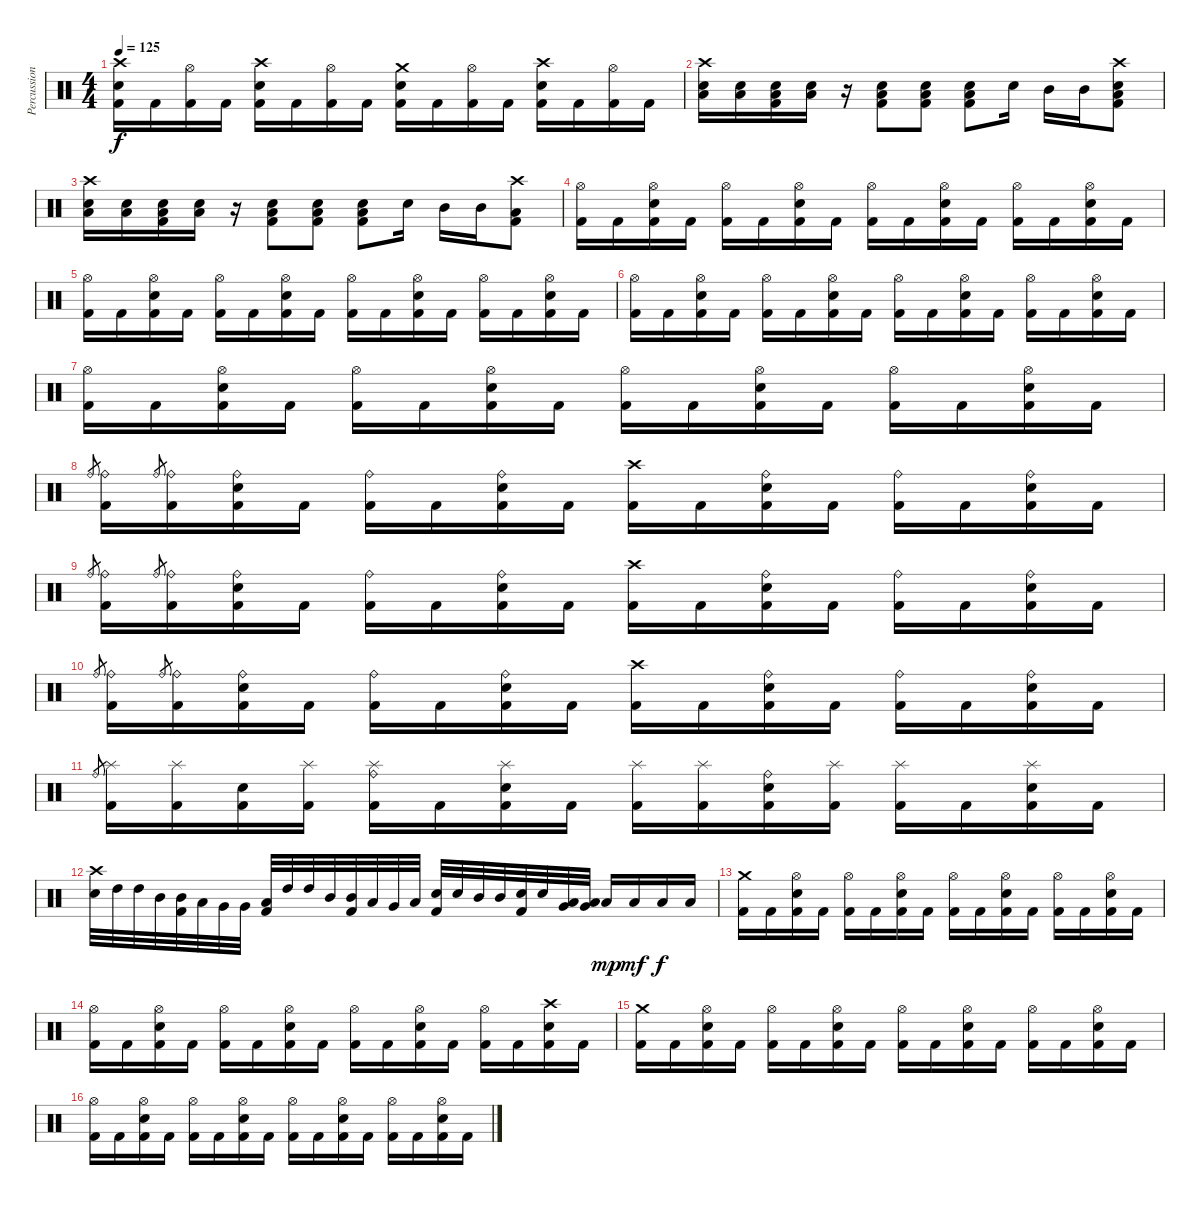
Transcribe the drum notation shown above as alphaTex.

\track ("Percussion" "Percussion") {instrument percussion}
\staff {score}
\articulation defaults
\ts (4 4)
\tempo 125
\clef neutral
\ks c
("Crash high (hit)" "Snare (hit) 2" "Kick (hit) 2").16{dy f} "Kick (hit) 2".16 ("Hi-Hat (open)" "Kick (hit) 2").16 "Kick (hit) 2".16 ("Crash high (hit)" "Snare (hit) 2" "Kick (hit) 2").16 "Kick (hit) 2".16 ("Hi-Hat (open)" "Kick (hit) 2").16 "Kick (hit) 2".16 ("Crash medium (hit)" "Snare (hit) 2" "Kick (hit) 2").16 "Kick (hit) 2".16 ("Hi-Hat (open)" "Kick (hit) 2").16 "Kick (hit) 2".16 ("Crash high (hit)" "Snare (hit) 2" "Kick (hit) 2").16 "Kick (hit) 2".16 ("Hi-Hat (open)" "Kick (hit) 2").16 "Kick (hit) 2".16 |
("Crash high (hit)" "Low Floor Tom (hit)" "Snare (hit) 2").16 ("Low Floor Tom (hit)" "Snare (hit) 2").16 ("Low Floor Tom (hit)" "Snare (hit) 2" "Kick (hit) 2").16 ("Low Floor Tom (hit)" "Snare (hit) 2").16 r.16 ("Low Floor Tom (hit)" "Snare (hit) 2" "Kick (hit) 2").8 ("Low Floor Tom (hit)" "Snare (hit) 2" "Kick (hit) 2").8 ("Low Floor Tom (hit)" "Snare (hit) 2" "Kick (hit) 2").8 "Snare (hit) 2".16 "Mid Tom (hit)".16 "Mid Tom (hit)".16 ("Crash high (hit)" "Low Floor Tom (hit)" "Snare (hit) 2" "Kick (hit) 2").8 |
("Crash high (hit)" "Low Floor Tom (hit)" "Snare (hit) 2").16 ("Low Floor Tom (hit)" "Snare (hit) 2").16 ("Low Floor Tom (hit)" "Snare (hit) 2" "Kick (hit) 2").16 ("Low Floor Tom (hit)" "Snare (hit) 2").16 r.16 ("Low Floor Tom (hit)" "Snare (hit) 2" "Kick (hit) 2").8 ("Low Floor Tom (hit)" "Snare (hit) 2" "Kick (hit) 2").8 ("Low Floor Tom (hit)" "Snare (hit) 2" "Kick (hit) 2").8 "Snare (hit) 2".16 "Mid Tom (hit)".16 "Mid Tom (hit)".16 ("Crash high (hit)" "Low Floor Tom (hit)" "Kick (hit) 2").8 |
("Hi-Hat (open)" "Kick (hit) 2").16 "Kick (hit) 2".16 ("Hi-Hat (open)" "Snare (hit) 2" "Kick (hit) 2").16 "Kick (hit) 2".16 ("Hi-Hat (open)" "Kick (hit) 2").16 "Kick (hit) 2".16 ("Hi-Hat (open)" "Snare (hit) 2" "Kick (hit) 2").16 "Kick (hit) 2".16 ("Hi-Hat (open)" "Kick (hit) 2").16 "Kick (hit) 2".16 ("Hi-Hat (open)" "Snare (hit) 2" "Kick (hit) 2").16 "Kick (hit) 2".16 ("Hi-Hat (open)" "Kick (hit) 2").16 "Kick (hit) 2".16 ("Hi-Hat (open)" "Snare (hit) 2" "Kick (hit) 2").16 "Kick (hit) 2".16 |
("Hi-Hat (open)" "Kick (hit) 2").16 "Kick (hit) 2".16 ("Hi-Hat (open)" "Snare (hit) 2" "Kick (hit) 2").16 "Kick (hit) 2".16 ("Hi-Hat (open)" "Kick (hit) 2").16 "Kick (hit) 2".16 ("Hi-Hat (open)" "Snare (hit) 2" "Kick (hit) 2").16 "Kick (hit) 2".16 ("Hi-Hat (open)" "Kick (hit) 2").16 "Kick (hit) 2".16 ("Hi-Hat (open)" "Snare (hit) 2" "Kick (hit) 2").16 "Kick (hit) 2".16 ("Hi-Hat (open)" "Kick (hit) 2").16 "Kick (hit) 2".16 ("Hi-Hat (open)" "Snare (hit) 2" "Kick (hit) 2").16 "Kick (hit) 2".16 |
("Hi-Hat (open)" "Kick (hit) 2").16 "Kick (hit) 2".16 ("Hi-Hat (open)" "Snare (hit) 2" "Kick (hit) 2").16 "Kick (hit) 2".16 ("Hi-Hat (open)" "Kick (hit) 2").16 "Kick (hit) 2".16 ("Hi-Hat (open)" "Snare (hit) 2" "Kick (hit) 2").16 "Kick (hit) 2".16 ("Hi-Hat (open)" "Kick (hit) 2").16 "Kick (hit) 2".16 ("Hi-Hat (open)" "Snare (hit) 2" "Kick (hit) 2").16 "Kick (hit) 2".16 ("Hi-Hat (open)" "Kick (hit) 2").16 "Kick (hit) 2".16 ("Hi-Hat (open)" "Snare (hit) 2" "Kick (hit) 2").16 "Kick (hit) 2".16 |
("Hi-Hat (open)" "Kick (hit) 2").16 "Kick (hit) 2".16 ("Hi-Hat (open)" "Snare (hit) 2" "Kick (hit) 2").16 "Kick (hit) 2".16 ("Hi-Hat (open)" "Kick (hit) 2").16 "Kick (hit) 2".16 ("Hi-Hat (open)" "Snare (hit) 2" "Kick (hit) 2").16 "Kick (hit) 2".16 ("Hi-Hat (open)" "Kick (hit) 2").16 "Kick (hit) 2".16 ("Hi-Hat (open)" "Snare (hit) 2" "Kick (hit) 2").16 "Kick (hit) 2".16 ("Hi-Hat (open)" "Kick (hit) 2").16 "Kick (hit) 2".16 ("Hi-Hat (open)" "Snare (hit) 2" "Kick (hit) 2").16 "Kick (hit) 2".16 |
"Ride (bell)".8{gr} ("Ride (bell)" "Kick (hit) 2").16 "Ride (bell)".8{gr} ("Ride (bell)" "Kick (hit) 2").16 ("Ride (bell)" "Snare (hit) 2" "Kick (hit) 2").16 "Kick (hit) 2".16 ("Ride (bell)" "Kick (hit) 2").16 "Kick (hit) 2".16 ("Ride (bell)" "Snare (hit) 2" "Kick (hit) 2").16 "Kick (hit) 2".16 ("Crash high (hit)" "Kick (hit) 2").16 "Kick (hit) 2".16 ("Ride (bell)" "Snare (hit) 2" "Kick (hit) 2").16 "Kick (hit) 2".16 ("Ride (bell)" "Kick (hit) 2").16 "Kick (hit) 2".16 ("Ride (bell)" "Snare (hit) 2" "Kick (hit) 2").16 "Kick (hit) 2".16 |
"Ride (bell)".8{gr} ("Ride (bell)" "Kick (hit) 2").16 "Ride (bell)".8{gr} ("Ride (bell)" "Kick (hit) 2").16 ("Ride (bell)" "Snare (hit) 2" "Kick (hit) 2").16 "Kick (hit) 2".16 ("Ride (bell)" "Kick (hit) 2").16 "Kick (hit) 2".16 ("Ride (bell)" "Snare (hit) 2" "Kick (hit) 2").16 "Kick (hit) 2".16 ("Crash high (hit)" "Kick (hit) 2").16 "Kick (hit) 2".16 ("Ride (bell)" "Snare (hit) 2" "Kick (hit) 2").16 "Kick (hit) 2".16 ("Ride (bell)" "Kick (hit) 2").16 "Kick (hit) 2".16 ("Ride (bell)" "Snare (hit) 2" "Kick (hit) 2").16 "Kick (hit) 2".16 |
"Ride (bell)".8{gr} ("Ride (bell)" "Kick (hit) 2").16 "Ride (bell)".8{gr} ("Ride (bell)" "Kick (hit) 2").16 ("Ride (bell)" "Snare (hit) 2" "Kick (hit) 2").16 "Kick (hit) 2".16 ("Ride (bell)" "Kick (hit) 2").16 "Kick (hit) 2".16 ("Ride (bell)" "Snare (hit) 2" "Kick (hit) 2").16 "Kick (hit) 2".16 ("Crash high (hit)" "Kick (hit) 2").16 "Kick (hit) 2".16 ("Ride (bell)" "Snare (hit) 2" "Kick (hit) 2").16 "Kick (hit) 2".16 ("Ride (bell)" "Kick (hit) 2").16 "Kick (hit) 2".16 ("Ride (bell)" "Snare (hit) 2" "Kick (hit) 2").16 "Kick (hit) 2".16 |
"Ride (bell)".8{gr} ("Splash (hit)" "Kick (hit) 2").16 ("Splash (hit)" "Kick (hit) 2").16 ("Snare (hit) 2" "Kick (hit) 2").16 ("Splash (hit)" "Kick (hit) 2").16 ("Ride (bell)" "Splash (hit)" "Kick (hit) 2").16 "Kick (hit) 2".16 ("Splash (hit)" "Snare (hit) 2" "Kick (hit) 2").16 "Kick (hit) 2".16 ("Splash (hit)" "Kick (hit) 2").16 ("Splash (hit)" "Kick (hit) 2").16 ("Ride (bell)" "Snare (hit) 2" "Kick (hit) 2").16 ("Splash (hit)" "Kick (hit) 2").16 ("Splash (hit)" "Kick (hit) 2").16 "Kick (hit) 2".16 ("Splash (hit)" "Snare (hit) 2" "Kick (hit) 2").16 "Kick (hit) 2".16 |
("Crash high (hit)" "Snare (hit) 2").32 "High Tom (hit)".32 "High Tom (hit)".32 "Mid Tom (hit)".32 ("Mid Tom (hit)" "Kick (hit) 2").32 "Low Tom (hit)".32 "Very Low Tom (hit)".32 "Very Low Tom (hit)".32 ("Low Floor Tom (hit)" "Kick (hit) 2").32 "High Tom (hit)".32 "High Tom (hit)".32 "Mid Tom (hit)".32 ("Mid Tom (hit)" "Kick (hit) 2").32 "Low Tom (hit)".32 "Very Low Tom (hit)".32 "Low Floor Tom (hit)".32 ("Snare (hit) 2" "Kick (hit) 2").32 "Snare (hit) 2".32 "Mid Tom (hit)".32 "Mid Tom (hit)".32 ("Snare (hit) 2" "Kick (hit) 2").32 "Snare (hit) 2".32 ("Very Low Tom (hit)" "Low Floor Tom (hit)").32 ("Very Low Tom (hit)" "Low Floor Tom (hit)").32 "Low Floor Tom (hit)".16{dy mp} "Low Floor Tom (hit)".16{dy mf} "Low Floor Tom (hit)".16{dy f} "Low Floor Tom (hit)".16 |
("Crash medium (hit)" "Kick (hit) 2").16 "Kick (hit) 2".16 ("Hi-Hat (open)" "Snare (hit) 2" "Kick (hit) 2").16 "Kick (hit) 2".16 ("Hi-Hat (open)" "Kick (hit) 2").16 "Kick (hit) 2".16 ("Hi-Hat (open)" "Snare (hit) 2" "Kick (hit) 2").16 "Kick (hit) 2".16 ("Hi-Hat (open)" "Kick (hit) 2").16 "Kick (hit) 2".16 ("Hi-Hat (open)" "Snare (hit) 2" "Kick (hit) 2").16 "Kick (hit) 2".16 ("Hi-Hat (open)" "Kick (hit) 2").16 "Kick (hit) 2".16 ("Hi-Hat (open)" "Snare (hit) 2" "Kick (hit) 2").16 "Kick (hit) 2".16 |
("Hi-Hat (open)" "Kick (hit) 2").16 "Kick (hit) 2".16 ("Hi-Hat (open)" "Snare (hit) 2" "Kick (hit) 2").16 "Kick (hit) 2".16 ("Hi-Hat (open)" "Kick (hit) 2").16 "Kick (hit) 2".16 ("Hi-Hat (open)" "Snare (hit) 2" "Kick (hit) 2").16 "Kick (hit) 2".16 ("Hi-Hat (open)" "Kick (hit) 2").16 "Kick (hit) 2".16 ("Hi-Hat (open)" "Snare (hit) 2" "Kick (hit) 2").16 "Kick (hit) 2".16 ("Hi-Hat (open)" "Kick (hit) 2").16 "Kick (hit) 2".16 ("Crash high (hit)" "Snare (hit) 2" "Kick (hit) 2").16 "Kick (hit) 2".16 |
("Crash medium (hit)" "Kick (hit) 2").16 "Kick (hit) 2".16 ("Hi-Hat (open)" "Snare (hit) 2" "Kick (hit) 2").16 "Kick (hit) 2".16 ("Hi-Hat (open)" "Kick (hit) 2").16 "Kick (hit) 2".16 ("Hi-Hat (open)" "Snare (hit) 2" "Kick (hit) 2").16 "Kick (hit) 2".16 ("Hi-Hat (open)" "Kick (hit) 2").16 "Kick (hit) 2".16 ("Hi-Hat (open)" "Snare (hit) 2" "Kick (hit) 2").16 "Kick (hit) 2".16 ("Hi-Hat (open)" "Kick (hit) 2").16 "Kick (hit) 2".16 ("Hi-Hat (open)" "Snare (hit) 2" "Kick (hit) 2").16 "Kick (hit) 2".16 |
("Hi-Hat (open)" "Kick (hit) 2").16 "Kick (hit) 2".16 ("Hi-Hat (open)" "Snare (hit) 2" "Kick (hit) 2").16 "Kick (hit) 2".16 ("Hi-Hat (open)" "Kick (hit) 2").16 "Kick (hit) 2".16 ("Hi-Hat (open)" "Snare (hit) 2" "Kick (hit) 2").16 "Kick (hit) 2".16 ("Hi-Hat (open)" "Kick (hit) 2").16 "Kick (hit) 2".16 ("Hi-Hat (open)" "Snare (hit) 2" "Kick (hit) 2").16 "Kick (hit) 2".16 ("Hi-Hat (open)" "Kick (hit) 2").16 "Kick (hit) 2".16 ("Hi-Hat (open)" "Snare (hit) 2" "Kick (hit) 2").16 "Kick (hit) 2".16
